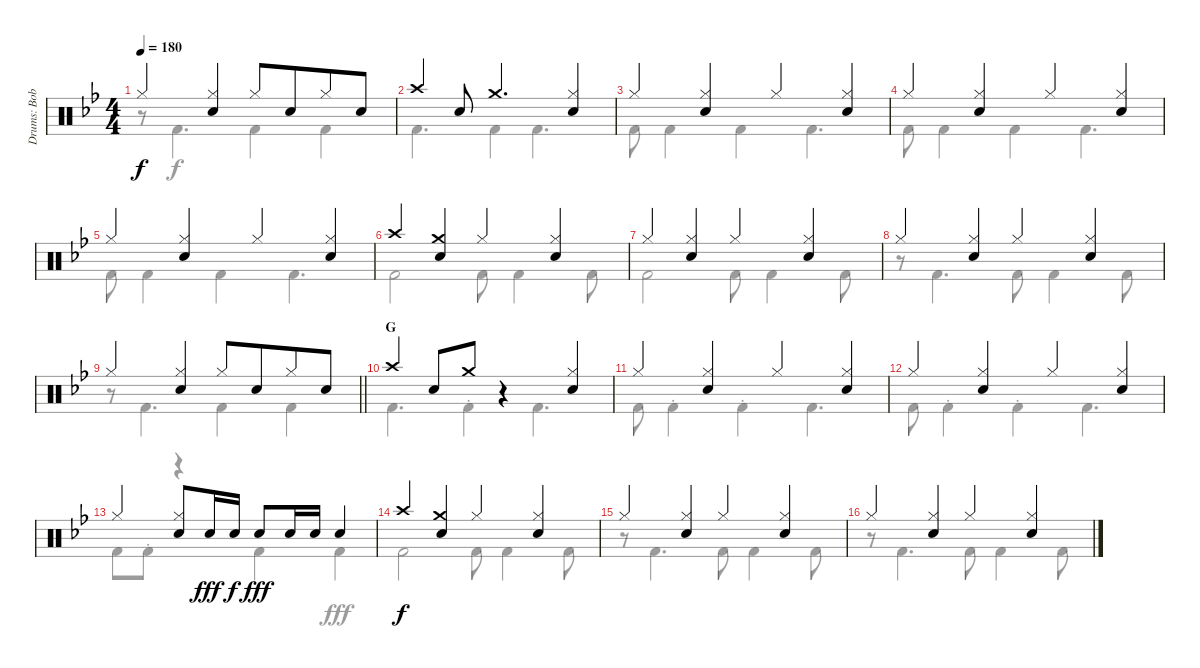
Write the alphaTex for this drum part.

\track ("Drums: Bobby" "Drums: Bob") {instrument percussion}
\staff {score}
\articulation defaults
\voice
\ts (4 4)
\tempo 180
\clef neutral
\ks bb "Hi-Hat (closed)".4{dy f}
("Hi-Hat (closed)" "Snare (hit) 2").4 "Hi-Hat (closed)".8 "Snare (hit) 2".8{beam merge} "Hi-Hat (closed)".8 "Snare (hit) 2".8 |
"Crash high (hit)".4 "Snare (hit) 2".8 "Crash medium (hit)".4{d} ("Hi-Hat (closed)" "Snare (hit) 2").4 |
"Hi-Hat (closed)".4 ("Hi-Hat (closed)" "Snare (hit) 2").4 "Hi-Hat (closed)".4 ("Hi-Hat (closed)" "Snare (hit) 2").4 |
"Hi-Hat (closed)".4 ("Hi-Hat (closed)" "Snare (hit) 2").4 "Hi-Hat (closed)".4 ("Hi-Hat (closed)" "Snare (hit) 2").4 |
"Hi-Hat (closed)".4 ("Hi-Hat (closed)" "Snare (hit) 2").4 "Hi-Hat (closed)".4 ("Hi-Hat (closed)" "Snare (hit) 2").4 |
"Crash high (hit)".4 ("Crash medium (hit)" "Snare (hit) 2").4 "Hi-Hat (closed)".4 ("Hi-Hat (closed)" "Snare (hit) 2").4 |
"Hi-Hat (closed)".4 ("Hi-Hat (closed)" "Snare (hit) 2").4 "Hi-Hat (closed)".4 ("Hi-Hat (closed)" "Snare (hit) 2").4 |
"Hi-Hat (closed)".4 ("Hi-Hat (closed)" "Snare (hit) 2").4 "Hi-Hat (closed)".4 ("Hi-Hat (closed)" "Snare (hit) 2").4 |
\barLineRight lightlight "Hi-Hat (closed)".4
("Hi-Hat (closed)" "Snare (hit) 2").4 "Hi-Hat (closed)".8 "Snare (hit) 2".8{beam merge} "Hi-Hat (closed)".8 "Snare (hit) 2".8 |
\section ("" "G")
"Crash high (hit)".4 "Snare (hit) 2".8 "Crash medium (hit)".8 r.4 ("Hi-Hat (closed)" "Snare (hit) 2").4 |
"Hi-Hat (closed)".4 ("Hi-Hat (closed)" "Snare (hit) 2").4 "Hi-Hat (closed)".4 ("Hi-Hat (closed)" "Snare (hit) 2").4 |
"Hi-Hat (closed)".4 ("Hi-Hat (closed)" "Snare (hit) 2").4 "Hi-Hat (closed)".4 ("Hi-Hat (closed)" "Snare (hit) 2").4 |
"Hi-Hat (closed)".4 ("Hi-Hat (closed)" "Snare (hit) 2").8 "Snare (hit) 2".16{dy fff} "Snare (hit) 2".16{dy f} "Snare (hit) 2".8{dy fff} "Snare (hit) 2".16 "Snare (hit) 2".16 "Snare (hit) 2".4 |
"Crash high (hit)".4{dy f} ("Crash medium (hit)" "Snare (hit) 2").4 "Hi-Hat (closed)".4 ("Hi-Hat (closed)" "Snare (hit) 2").4 |
"Hi-Hat (closed)".4 ("Hi-Hat (closed)" "Snare (hit) 2").4 "Hi-Hat (closed)".4 ("Hi-Hat (closed)" "Snare (hit) 2").4 |
"Hi-Hat (closed)".4 ("Hi-Hat (closed)" "Snare (hit) 2").4 "Hi-Hat (closed)".4 ("Hi-Hat (closed)" "Snare (hit) 2").4
\voice
\clef neutral
\ottava regular
\simile none
\ks bb
r.8{dy f} "Kick (hit) 2".4{d} "Kick (hit) 2".4 "Kick (hit) 2".4 |
"Kick (hit) 2".4{d} "Kick (hit) 2".4 "Kick (hit) 2".4{d} |
"Kick (hit) 2".8 "Kick (hit) 2".4 "Kick (hit) 2".4 "Kick (hit) 2".4{d} |
"Kick (hit) 2".8 "Kick (hit) 2".4 "Kick (hit) 2".4 "Kick (hit) 2".4{d} |
"Kick (hit) 2".8 "Kick (hit) 2".4 "Kick (hit) 2".4 "Kick (hit) 2".4{d} |
"Kick (hit) 2".2 "Kick (hit) 2".8 "Kick (hit) 2".4 "Kick (hit) 2".8 |
"Kick (hit) 2".2 "Kick (hit) 2".8 "Kick (hit) 2".4 "Kick (hit) 2".8 |
r.8 "Kick (hit) 2".4{d} "Kick (hit) 2".8 "Kick (hit) 2".4 "Kick (hit) 2".8 |
\barLineRight lightlight
r.8 "Kick (hit) 2".4{d} "Kick (hit) 2".4 "Kick (hit) 2".4 |
"Kick (hit) 2".4{d} "Kick (hit) 2"{st}.4 "Kick (hit) 2".4{d} |
"Kick (hit) 2".8 "Kick (hit) 2"{st}.4 "Kick (hit) 2"{st}.4 "Kick (hit) 2".4{d} |
"Kick (hit) 2".8 "Kick (hit) 2"{st}.4 "Kick (hit) 2"{st}.4 "Kick (hit) 2".4{d} |
"Kick (hit) 2".8 "Kick (hit) 2"{st}.8 r.4 "Kick (hit) 2".4 "Kick (hit) 2".4{dy fff} |
"Kick (hit) 2".2{dy f} "Kick (hit) 2".8 "Kick (hit) 2".4 "Kick (hit) 2".8 |
r.8 "Kick (hit) 2".4{d} "Kick (hit) 2".8 "Kick (hit) 2".4 "Kick (hit) 2".8 |
r.8 "Kick (hit) 2".4{d} "Kick (hit) 2".8 "Kick (hit) 2".4 "Kick (hit) 2".8
